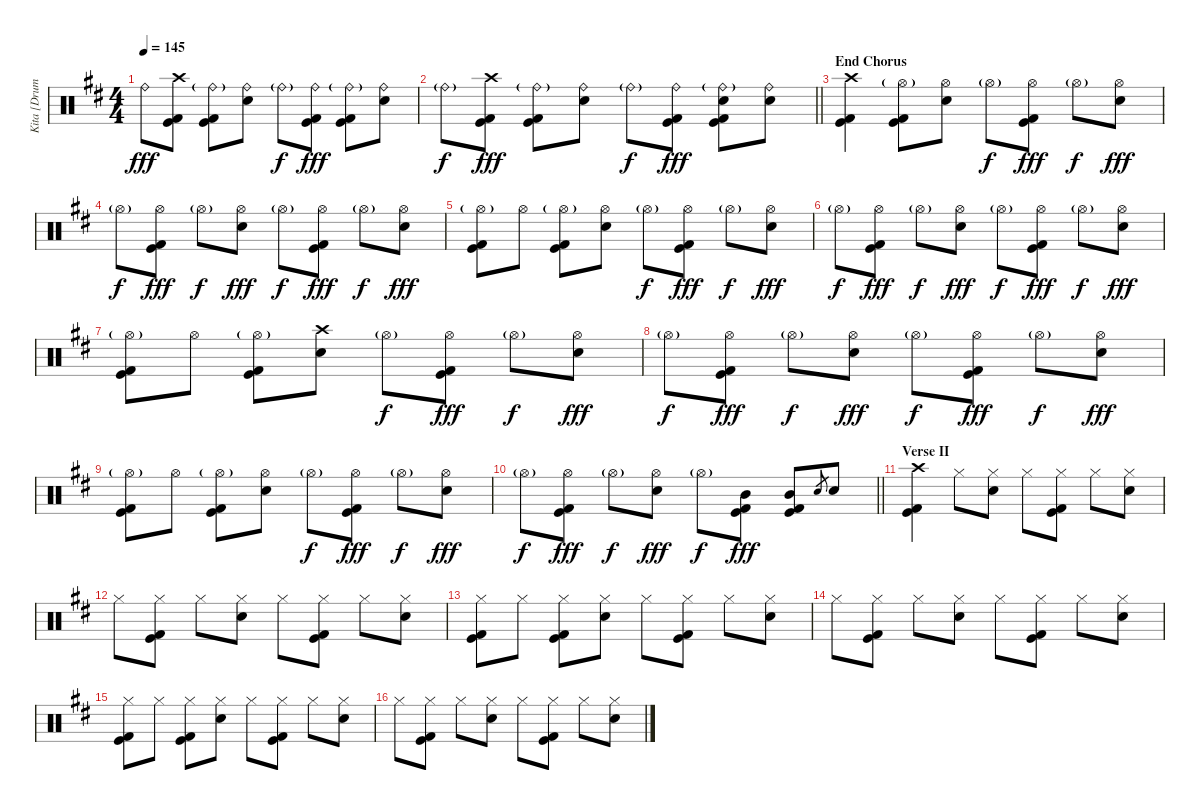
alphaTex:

\track ("Kita [Drums]" "Kita [Drum") {instrument percussion}
\staff {score}
\articulation defaults
\ts (4 4)
\tempo 145
\clef neutral
\ks d "Ride (bell)".8{dy fff}
("Crash high (hit)" "Kick (hit)" "Kick (hit) 2").8 ("Ride (bell)"{g} "Kick (hit)" "Kick (hit) 2").8 ("Ride (bell)" "Electric Snare (hit)").8 "Ride (bell)"{g}.8{dy f} ("Ride (bell)" "Kick (hit)" "Kick (hit) 2").8{dy fff} ("Ride (bell)"{g} "Kick (hit)" "Kick (hit) 2").8 ("Ride (bell)" "Electric Snare (hit)").8 |
\barLineRight lightlight "Ride (bell)"{g}.8{dy f}
("Crash high (hit)" "Kick (hit)" "Kick (hit) 2").8{dy fff} ("Ride (bell)"{g} "Kick (hit)" "Kick (hit) 2").8 ("Ride (bell)" "Electric Snare (hit)").8 "Ride (bell)"{g}.8{dy f} ("Ride (bell)" "Kick (hit)" "Kick (hit) 2").8{dy fff} ("Ride (bell)"{g} "Electric Snare (hit)" "Kick (hit)" "Kick (hit) 2").8 ("Ride (bell)" "Electric Snare (hit)").8 |
\section ("" "End Chorus")
("Crash high (hit)" "Kick (hit)" "Kick (hit) 2").4 ("Hi-Hat (open)"{g} "Kick (hit)" "Kick (hit) 2").8 ("Hi-Hat (open)" "Electric Snare (hit)").8 "Hi-Hat (open)"{g}.8{dy f} ("Hi-Hat (open)" "Kick (hit)" "Kick (hit) 2").8{dy fff} "Hi-Hat (open)"{g}.8{dy f} ("Hi-Hat (open)" "Electric Snare (hit)").8{dy fff} |
"Hi-Hat (open)"{g}.8{dy f} ("Hi-Hat (open)" "Kick (hit)" "Kick (hit) 2").8{dy fff} "Hi-Hat (open)"{g}.8{dy f} ("Hi-Hat (open)" "Electric Snare (hit)").8{dy fff} "Hi-Hat (open)"{g}.8{dy f} ("Hi-Hat (open)" "Kick (hit)" "Kick (hit) 2").8{dy fff} "Hi-Hat (open)"{g}.8{dy f} ("Hi-Hat (open)" "Electric Snare (hit)").8{dy fff} |
("Hi-Hat (open)"{g} "Kick (hit)" "Kick (hit) 2").8 "Hi-Hat (open)".8 ("Hi-Hat (open)"{g} "Kick (hit)" "Kick (hit) 2").8 ("Hi-Hat (open)" "Electric Snare (hit)").8 "Hi-Hat (open)"{g}.8{dy f} ("Hi-Hat (open)" "Kick (hit)" "Kick (hit) 2").8{dy fff} "Hi-Hat (open)"{g}.8{dy f} ("Hi-Hat (open)" "Electric Snare (hit)").8{dy fff} |
"Hi-Hat (open)"{g}.8{dy f} ("Hi-Hat (open)" "Kick (hit)" "Kick (hit) 2").8{dy fff} "Hi-Hat (open)"{g}.8{dy f} ("Hi-Hat (open)" "Electric Snare (hit)").8{dy fff} "Hi-Hat (open)"{g}.8{dy f} ("Hi-Hat (open)" "Kick (hit)" "Kick (hit) 2").8{dy fff} "Hi-Hat (open)"{g}.8{dy f} ("Hi-Hat (open)" "Electric Snare (hit)").8{dy fff} |
("Hi-Hat (open)"{g} "Kick (hit)" "Kick (hit) 2").8 "Hi-Hat (open)".8 ("Hi-Hat (open)"{g} "Kick (hit)" "Kick (hit) 2").8 ("Crash high (hit)" "Electric Snare (hit)").8 "Hi-Hat (open)"{g}.8{dy f} ("Hi-Hat (open)" "Kick (hit)" "Kick (hit) 2").8{dy fff} "Hi-Hat (open)"{g}.8{dy f} ("Hi-Hat (open)" "Electric Snare (hit)").8{dy fff} |
"Hi-Hat (open)"{g}.8{dy f} ("Hi-Hat (open)" "Kick (hit)" "Kick (hit) 2").8{dy fff} "Hi-Hat (open)"{g}.8{dy f} ("Hi-Hat (open)" "Electric Snare (hit)").8{dy fff} "Hi-Hat (open)"{g}.8{dy f} ("Hi-Hat (open)" "Kick (hit)" "Kick (hit) 2").8{dy fff} "Hi-Hat (open)"{g}.8{dy f} ("Hi-Hat (open)" "Electric Snare (hit)").8{dy fff} |
("Hi-Hat (open)"{g} "Kick (hit)" "Kick (hit) 2").8 "Hi-Hat (open)".8 ("Hi-Hat (open)"{g} "Kick (hit)" "Kick (hit) 2").8 ("Hi-Hat (open)" "Electric Snare (hit)").8 "Hi-Hat (open)"{g}.8{dy f} ("Hi-Hat (open)" "Kick (hit)" "Kick (hit) 2").8{dy fff} "Hi-Hat (open)"{g}.8{dy f} ("Hi-Hat (open)" "Electric Snare (hit)").8{dy fff} |
\barLineRight lightlight "Hi-Hat (open)"{g}.8{dy f}
("Hi-Hat (open)" "Kick (hit)" "Kick (hit) 2").8{dy fff} "Hi-Hat (open)"{g}.8{dy f} ("Hi-Hat (open)" "Electric Snare (hit)").8{dy fff} "Hi-Hat (open)"{g}.8{dy f} ("Mid Tom (hit)" "Kick (hit)" "Kick (hit) 2").8{dy fff} ("Mid Tom (hit)" "Kick (hit)" "Kick (hit) 2").8 "Electric Snare (hit)".8{gr} "Electric Snare (hit)".8 |
\section ("" "Verse II")
("Crash high (hit)" "Kick (hit)" "Kick (hit) 2").4 "Hi-Hat (closed)".8 ("Hi-Hat (closed)" "Electric Snare (hit)").8 "Hi-Hat (closed)".8 ("Hi-Hat (closed)" "Kick (hit)" "Kick (hit) 2").8 "Hi-Hat (closed)".8 ("Hi-Hat (closed)" "Electric Snare (hit)").8 |
"Hi-Hat (closed)".8 ("Hi-Hat (closed)" "Kick (hit)" "Kick (hit) 2").8 "Hi-Hat (closed)".8 ("Hi-Hat (closed)" "Electric Snare (hit)").8 "Hi-Hat (closed)".8 ("Hi-Hat (closed)" "Kick (hit)" "Kick (hit) 2").8 "Hi-Hat (closed)".8 ("Hi-Hat (closed)" "Electric Snare (hit)").8 |
("Hi-Hat (closed)" "Kick (hit)" "Kick (hit) 2").8 "Hi-Hat (closed)".8 ("Hi-Hat (closed)" "Kick (hit)" "Kick (hit) 2").8 ("Hi-Hat (closed)" "Electric Snare (hit)").8 "Hi-Hat (closed)".8 ("Hi-Hat (closed)" "Kick (hit)" "Kick (hit) 2").8 "Hi-Hat (closed)".8 ("Hi-Hat (closed)" "Electric Snare (hit)").8 |
"Hi-Hat (closed)".8 ("Hi-Hat (closed)" "Kick (hit)" "Kick (hit) 2").8 "Hi-Hat (closed)".8 ("Hi-Hat (closed)" "Electric Snare (hit)").8 "Hi-Hat (closed)".8 ("Hi-Hat (closed)" "Kick (hit)" "Kick (hit) 2").8 "Hi-Hat (closed)".8 ("Hi-Hat (closed)" "Electric Snare (hit)").8 |
("Hi-Hat (closed)" "Kick (hit)" "Kick (hit) 2").8 "Hi-Hat (closed)".8 ("Hi-Hat (closed)" "Kick (hit)" "Kick (hit) 2").8 ("Hi-Hat (closed)" "Electric Snare (hit)").8 "Hi-Hat (closed)".8 ("Hi-Hat (closed)" "Kick (hit)" "Kick (hit) 2").8 "Hi-Hat (closed)".8 ("Hi-Hat (closed)" "Electric Snare (hit)").8 |
"Hi-Hat (closed)".8 ("Hi-Hat (closed)" "Kick (hit)" "Kick (hit) 2").8 "Hi-Hat (closed)".8 ("Hi-Hat (closed)" "Electric Snare (hit)").8 "Hi-Hat (closed)".8 ("Hi-Hat (closed)" "Kick (hit)" "Kick (hit) 2").8 "Hi-Hat (closed)".8 ("Hi-Hat (closed)" "Electric Snare (hit)").8
